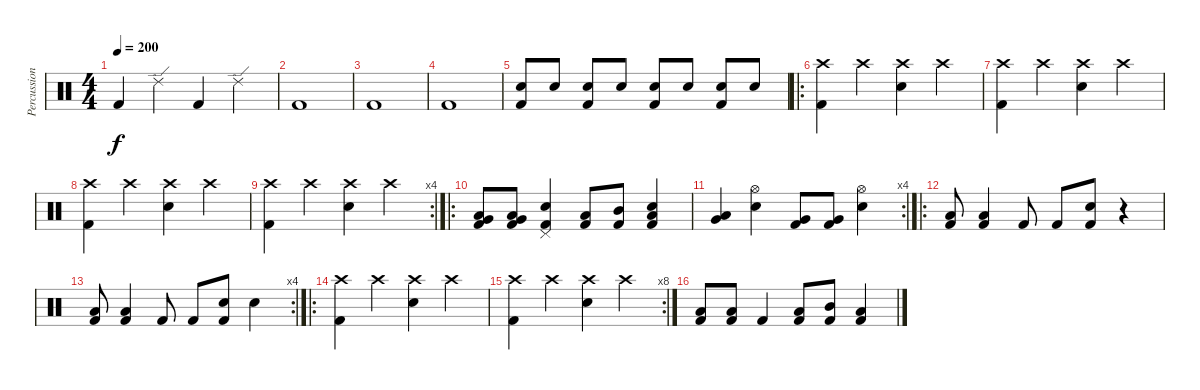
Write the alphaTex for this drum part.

\track ("Percussion" "Percussion") {instrument percussion}
\staff {score}
\articulation defaults
\ts (4 4)
\tempo 200
\clef neutral
\ks c "Kick (hit) 2".4{dy f} "Ride (edge) 2".4 "Kick (hit) 2".4 "Ride (edge) 2".4
|
"Kick (hit) 2".1 |
"Kick (hit) 2".1 |
"Kick (hit) 2".1 |
("Snare (hit) 2" "Kick (hit) 2").8 "Snare (hit) 2".8 ("Snare (hit) 2" "Kick (hit) 2").8 "Snare (hit) 2".8 ("Snare (hit) 2" "Kick (hit) 2").8 "Snare (hit) 2".8 ("Snare (hit) 2" "Kick (hit) 2").8 "Snare (hit) 2".8 |
\ro
("Crash high (hit)" "Kick (hit) 2").4 "Crash high (hit)".4 ("Crash high (hit)" "Snare (hit) 2").4 "Crash high (hit)".4 |
("Crash high (hit)" "Kick (hit) 2").4 "Crash high (hit)".4 ("Crash high (hit)" "Snare (hit) 2").4 "Crash high (hit)".4 |
("Crash high (hit)" "Kick (hit) 2").4 "Crash high (hit)".4 ("Crash high (hit)" "Snare (hit) 2").4 "Crash high (hit)".4 |
\rc 4
("Crash high (hit)" "Kick (hit) 2").4 "Crash high (hit)".4 ("Crash high (hit)" "Snare (hit) 2").4 "Crash high (hit)".4 |
\ro
("Very Low Tom (hit)" "Low Floor Tom (hit)" "Kick (hit) 2").8 ("Very Low Tom (hit)" "Low Floor Tom (hit)" "Kick (hit) 2").8 ("Snare (hit) 2" "Pedal Hi-Hat (hit)" "Kick (hit) 2").4 ("Low Tom (hit)" "Kick (hit) 2").8 ("Mid Tom (hit)" "Kick (hit) 2").8 ("Snare (hit) 2" "Low Tom (hit)" "Kick (hit) 2").4 |
\rc 4
("Very Low Tom (hit)" "Low Floor Tom (hit)").4 ("Snare (hit) 2" "Hi-Hat (open)").4 ("Very Low Tom (hit)" "Kick (hit) 2").8 ("Very Low Tom (hit)" "Kick (hit) 2").8 ("Snare (hit) 2" "Hi-Hat (open)").4 |
\ro
("Low Tom (hit)" "Kick (hit) 2").8 ("Low Tom (hit)" "Kick (hit) 2").4 "Kick (hit) 2".8 "Kick (hit) 2".8 ("Snare (hit) 2" "Kick (hit) 2").8 r.4 |
\rc 4
("Low Tom (hit)" "Kick (hit) 2").8 ("Low Tom (hit)" "Kick (hit) 2").4 "Kick (hit) 2".8 "Kick (hit) 2".8 ("Snare (hit) 2" "Kick (hit) 2").8 "Snare (hit) 2".4 |
\ro
("Crash high (hit)" "Kick (hit) 2").4 "Crash high (hit)".4 ("Crash high (hit)" "Snare (hit) 2").4 "Crash high (hit)".4 |
\rc 8
("Crash high (hit)" "Kick (hit) 2").4 "Crash high (hit)".4 ("Crash high (hit)" "Snare (hit) 2").4 "Crash high (hit)".4 |
("Low Floor Tom (hit)" "Kick (hit) 2").8 ("Low Floor Tom (hit)" "Kick (hit) 2").8 "Kick (hit) 2".4 ("Low Tom (hit)" "Kick (hit) 2").8 ("Mid Tom (hit)" "Kick (hit) 2").8 ("Low Tom (hit)" "Kick (hit) 2").4
